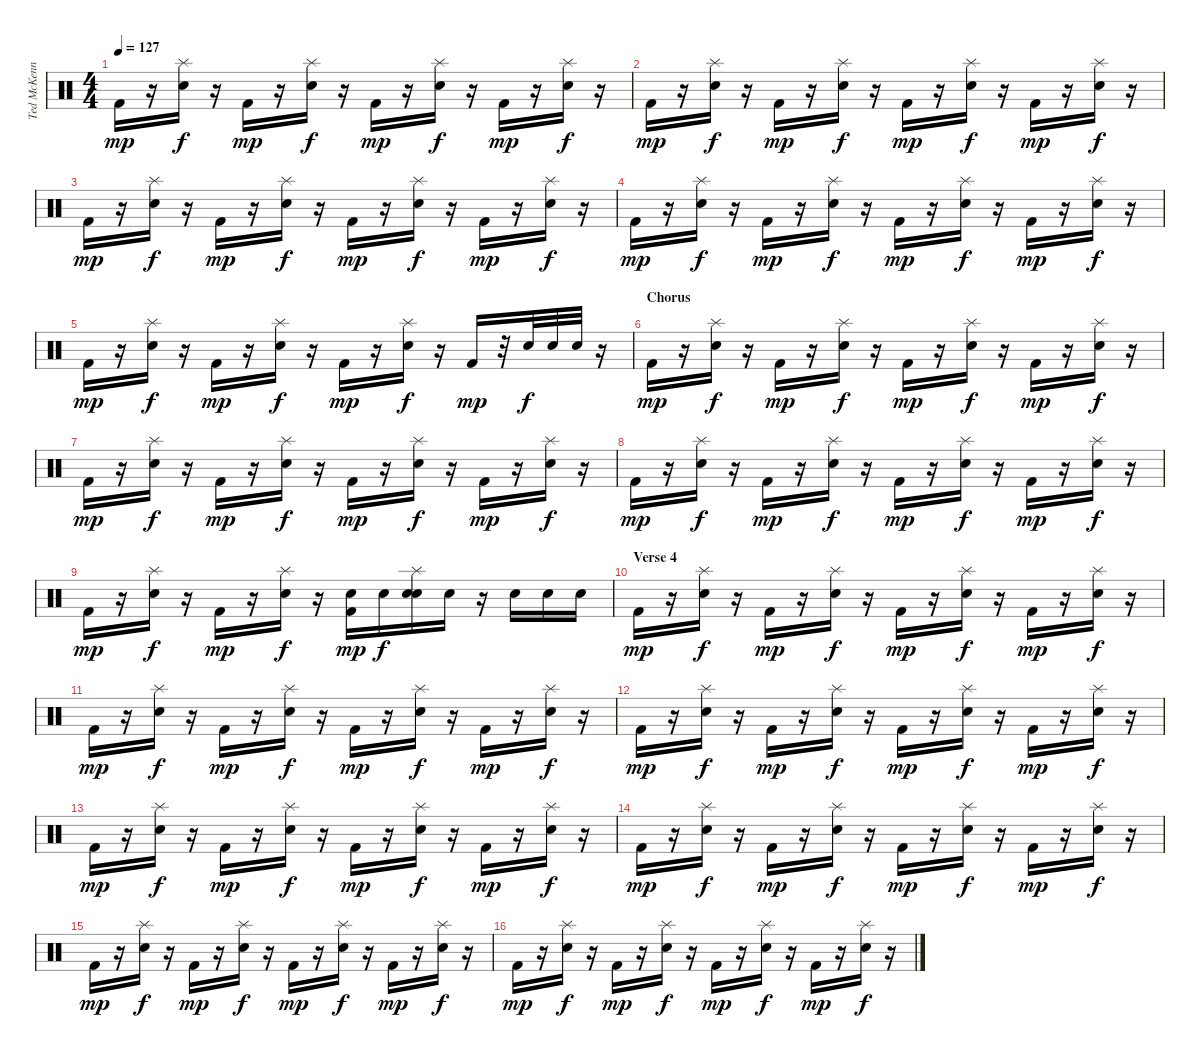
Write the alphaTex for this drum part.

\track ("Ted McKenna" "Ted McKenn") {instrument percussion}
\staff {score}
\articulation defaults
\ts (4 4)
\tempo 127
\clef neutral
\ks c "Kick (hit) 2".16{dy mp}
r.16 ("Splash (hit)" "Snare (hit) 2").16{dy f} r.16 "Kick (hit) 2".16{dy mp} r.16 ("Splash (hit)" "Snare (hit) 2").16{dy f} r.16 "Kick (hit) 2".16{dy mp} r.16 ("Splash (hit)" "Snare (hit) 2").16{dy f} r.16 "Kick (hit) 2".16{dy mp} r.16 ("Splash (hit)" "Snare (hit) 2").16{dy f} r.16 |
"Kick (hit) 2".16{dy mp} r.16 ("Splash (hit)" "Snare (hit) 2").16{dy f} r.16 "Kick (hit) 2".16{dy mp} r.16 ("Splash (hit)" "Snare (hit) 2").16{dy f} r.16 "Kick (hit) 2".16{dy mp} r.16 ("Splash (hit)" "Snare (hit) 2").16{dy f} r.16 "Kick (hit) 2".16{dy mp} r.16 ("Splash (hit)" "Snare (hit) 2").16{dy f} r.16 |
"Kick (hit) 2".16{dy mp} r.16 ("Splash (hit)" "Snare (hit) 2").16{dy f} r.16 "Kick (hit) 2".16{dy mp} r.16 ("Splash (hit)" "Snare (hit) 2").16{dy f} r.16 "Kick (hit) 2".16{dy mp} r.16 ("Splash (hit)" "Snare (hit) 2").16{dy f} r.16 "Kick (hit) 2".16{dy mp} r.16 ("Splash (hit)" "Snare (hit) 2").16{dy f} r.16 |
"Kick (hit) 2".16{dy mp} r.16 ("Splash (hit)" "Snare (hit) 2").16{dy f} r.16 "Kick (hit) 2".16{dy mp} r.16 ("Splash (hit)" "Snare (hit) 2").16{dy f} r.16 "Kick (hit) 2".16{dy mp} r.16 ("Splash (hit)" "Snare (hit) 2").16{dy f} r.16 "Kick (hit) 2".16{dy mp} r.16 ("Splash (hit)" "Snare (hit) 2").16{dy f} r.16 |
"Kick (hit) 2".16{dy mp} r.16 ("Splash (hit)" "Snare (hit) 2").16{dy f} r.16 "Kick (hit) 2".16{dy mp} r.16 ("Splash (hit)" "Snare (hit) 2").16{dy f} r.16 "Kick (hit) 2".16{dy mp} r.16 ("Splash (hit)" "Snare (hit) 2").16{dy f} r.16 "Kick (hit) 2".16{dy mp} r.32 "Snare (hit) 2".32{dy f} "Snare (hit) 2".32 "Snare (hit) 2".32 r.16 |
\section ("" "Chorus")
"Kick (hit) 2".16{dy mp} r.16 ("Splash (hit)" "Snare (hit) 2").16{dy f} r.16 "Kick (hit) 2".16{dy mp} r.16 ("Splash (hit)" "Snare (hit) 2").16{dy f} r.16 "Kick (hit) 2".16{dy mp} r.16 ("Splash (hit)" "Snare (hit) 2").16{dy f} r.16 "Kick (hit) 2".16{dy mp} r.16 ("Splash (hit)" "Snare (hit) 2").16{dy f} r.16 |
"Kick (hit) 2".16{dy mp} r.16 ("Splash (hit)" "Snare (hit) 2").16{dy f} r.16 "Kick (hit) 2".16{dy mp} r.16 ("Splash (hit)" "Snare (hit) 2").16{dy f} r.16 "Kick (hit) 2".16{dy mp} r.16 ("Splash (hit)" "Snare (hit) 2").16{dy f} r.16 "Kick (hit) 2".16{dy mp} r.16 ("Splash (hit)" "Snare (hit) 2").16{dy f} r.16 |
"Kick (hit) 2".16{dy mp} r.16 ("Splash (hit)" "Snare (hit) 2").16{dy f} r.16 "Kick (hit) 2".16{dy mp} r.16 ("Splash (hit)" "Snare (hit) 2").16{dy f} r.16 "Kick (hit) 2".16{dy mp} r.16 ("Splash (hit)" "Snare (hit) 2").16{dy f} r.16 "Kick (hit) 2".16{dy mp} r.16 ("Splash (hit)" "Snare (hit) 2").16{dy f} r.16 |
"Kick (hit) 2".16{dy mp} r.16 ("Splash (hit)" "Snare (hit) 2").16{dy f} r.16 "Kick (hit) 2".16{dy mp} r.16 ("Splash (hit)" "Snare (hit) 2").16{dy f} r.16 ("Electric Snare (hit)" "Kick (hit) 2").16{dy mp} "Electric Snare (hit)".16{dy f} ("Splash (hit)" "Snare (hit) 2" "Electric Snare (hit)").16 "Electric Snare (hit)".16 r.16 "Electric Snare (hit)".16 "Electric Snare (hit)".16 "Electric Snare (hit)".16 |
\section ("" "Verse 4")
"Kick (hit) 2".16{dy mp} r.16 ("Splash (hit)" "Snare (hit) 2").16{dy f} r.16 "Kick (hit) 2".16{dy mp} r.16 ("Splash (hit)" "Snare (hit) 2").16{dy f} r.16 "Kick (hit) 2".16{dy mp} r.16 ("Splash (hit)" "Snare (hit) 2").16{dy f} r.16 "Kick (hit) 2".16{dy mp} r.16 ("Splash (hit)" "Snare (hit) 2").16{dy f} r.16 |
"Kick (hit) 2".16{dy mp} r.16 ("Splash (hit)" "Snare (hit) 2").16{dy f} r.16 "Kick (hit) 2".16{dy mp} r.16 ("Splash (hit)" "Snare (hit) 2").16{dy f} r.16 "Kick (hit) 2".16{dy mp} r.16 ("Splash (hit)" "Snare (hit) 2").16{dy f} r.16 "Kick (hit) 2".16{dy mp} r.16 ("Splash (hit)" "Snare (hit) 2").16{dy f} r.16 |
"Kick (hit) 2".16{dy mp} r.16 ("Splash (hit)" "Snare (hit) 2").16{dy f} r.16 "Kick (hit) 2".16{dy mp} r.16 ("Splash (hit)" "Snare (hit) 2").16{dy f} r.16 "Kick (hit) 2".16{dy mp} r.16 ("Splash (hit)" "Snare (hit) 2").16{dy f} r.16 "Kick (hit) 2".16{dy mp} r.16 ("Splash (hit)" "Snare (hit) 2").16{dy f} r.16 |
"Kick (hit) 2".16{dy mp} r.16 ("Splash (hit)" "Snare (hit) 2").16{dy f} r.16 "Kick (hit) 2".16{dy mp} r.16 ("Splash (hit)" "Snare (hit) 2").16{dy f} r.16 "Kick (hit) 2".16{dy mp} r.16 ("Splash (hit)" "Snare (hit) 2").16{dy f} r.16 "Kick (hit) 2".16{dy mp} r.16 ("Splash (hit)" "Snare (hit) 2").16{dy f} r.16 |
"Kick (hit) 2".16{dy mp} r.16 ("Splash (hit)" "Snare (hit) 2").16{dy f} r.16 "Kick (hit) 2".16{dy mp} r.16 ("Splash (hit)" "Snare (hit) 2").16{dy f} r.16 "Kick (hit) 2".16{dy mp} r.16 ("Splash (hit)" "Snare (hit) 2").16{dy f} r.16 "Kick (hit) 2".16{dy mp} r.16 ("Splash (hit)" "Snare (hit) 2").16{dy f} r.16 |
"Kick (hit) 2".16{dy mp} r.16 ("Splash (hit)" "Snare (hit) 2").16{dy f} r.16 "Kick (hit) 2".16{dy mp} r.16 ("Splash (hit)" "Snare (hit) 2").16{dy f} r.16 "Kick (hit) 2".16{dy mp} r.16 ("Splash (hit)" "Snare (hit) 2").16{dy f} r.16 "Kick (hit) 2".16{dy mp} r.16 ("Splash (hit)" "Snare (hit) 2").16{dy f} r.16 |
"Kick (hit) 2".16{dy mp} r.16 ("Splash (hit)" "Snare (hit) 2").16{dy f} r.16 "Kick (hit) 2".16{dy mp} r.16 ("Splash (hit)" "Snare (hit) 2").16{dy f} r.16 "Kick (hit) 2".16{dy mp} r.16 ("Splash (hit)" "Snare (hit) 2").16{dy f} r.16 "Kick (hit) 2".16{dy mp} r.16 ("Splash (hit)" "Snare (hit) 2").16{dy f} r.16
